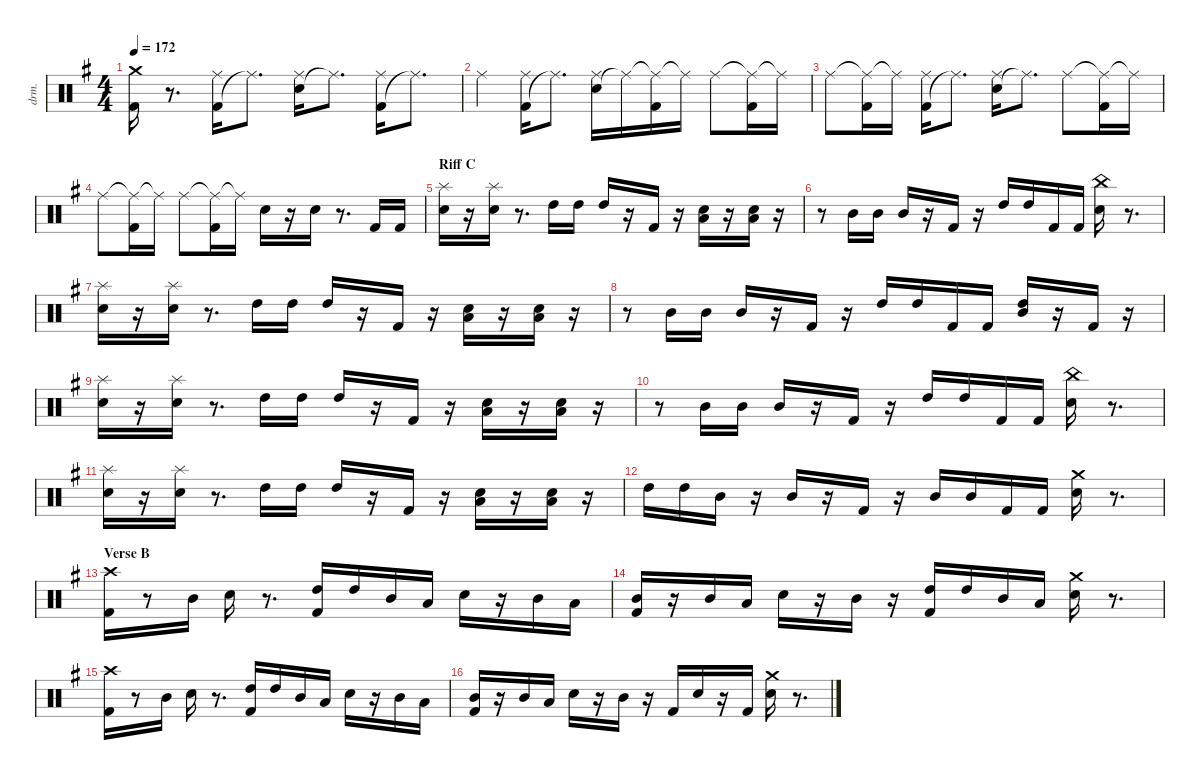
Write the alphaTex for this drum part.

\defaultSystemsLayout 4
\hideDynamics
\bracketExtendMode nobrackets
\otherSystemsTrackNameOrientation horizontal
\track ("Shinya" "drm.") {instrument percussion}
\staff {score}
\articulation defaults
\ts (4 4)
\tempo 172
\clef neutral
\ks eminor
("Kick (hit) 2"{acc forcenatural} "Crash medium (hit)"{acc forcenatural}).16{dy fff} r.8{d} ("Kick (hit) 2"{acc forcenatural} "Ride (middle)"{acc #}).16 "Ride (middle)"{t acc #}.8{d} ("Snare (hit) 2"{acc forcenatural} "Ride (middle)"{acc #}).16 "Ride (middle)"{t acc #}.8{d} ("Kick (hit) 2"{acc forcenatural} "Ride (middle)"{acc #}).16 "Ride (middle)"{t acc #}.8{d} |
"Ride (middle)"{acc #}.4 ("Kick (hit) 2"{acc forcenatural} "Ride (middle)"{acc #}).16 "Ride (middle)"{t acc #}.8{d} ("Snare (hit) 2"{acc forcenatural} "Ride (middle)"{acc #}).16 "Ride (middle)"{t acc #}.16 ("Ride (middle)"{t acc #} "Kick (hit) 2"{acc forcenatural}).16 "Ride (middle)"{t acc #}.16 "Ride (middle)"{acc #}.8 ("Ride (middle)"{t acc #} "Kick (hit) 2"{acc forcenatural}).16 "Ride (middle)"{t acc #}.16 |
"Ride (middle)"{acc #}.8 ("Ride (middle)"{t acc #} "Kick (hit) 2"{acc forcenatural}).16 "Ride (middle)"{t acc #}.16 ("Kick (hit) 2"{acc forcenatural} "Ride (middle)"{acc #}).16 "Ride (middle)"{t acc #}.8{d} ("Snare (hit) 2"{acc forcenatural} "Ride (middle)"{acc #}).16 "Ride (middle)"{t acc #}.8{d} "Ride (middle)"{acc #}.8 ("Ride (middle)"{t acc #} "Kick (hit) 2"{acc forcenatural}).16 "Ride (middle)"{t acc #}.16 |
"Ride (middle)"{acc #}.8 ("Ride (middle)"{t acc #} "Kick (hit) 2"{acc forcenatural}).16 "Ride (middle)"{t acc #}.16 "Ride (middle)"{acc #}.8 ("Ride (middle)"{t acc #} "Kick (hit) 2"{acc forcenatural}).16 "Ride (middle)"{t acc #}.16 "Snare (hit) 2"{acc forcenatural}.16 r.16 "Snare (hit) 2"{acc forcenatural}.16 r.8{d} "Kick (hit) 2"{acc forcenatural}.16 "Kick (hit) 2"{acc forcenatural}.16 |
\section ("" "Riff C")
("Snare (hit) 2"{acc forcenatural} "Splash (hit)"{acc forcenatural}).16 r.16 ("Snare (hit) 2"{acc forcenatural} "Splash (hit)"{acc forcenatural}).16 r.8{d} "High Tom (hit)"{acc forcenatural}.16 "High Tom (hit)"{acc forcenatural}.16 "High Tom (hit)"{acc forcenatural}.16 r.16 "Kick (hit) 2"{acc forcenatural}.16 r.16 ("Snare (hit) 2"{acc forcenatural} "Low Tom (hit)"{acc forcenatural}).16 r.16 ("Snare (hit) 2"{acc forcenatural} "Low Tom (hit)"{acc forcenatural}).16 r.16 |
r.8 "Mid Tom (hit)"{acc forcenatural}.16 "Mid Tom (hit)"{acc forcenatural}.16 "Mid Tom (hit)"{acc forcenatural}.16 r.16 "Kick (hit) 2"{acc forcenatural}.16 r.16 "High Tom (hit)"{acc forcenatural}.16 "High Tom (hit)"{acc forcenatural}.16 "Kick (hit) 2"{acc forcenatural}.16 "Kick (hit) 2"{acc forcenatural}.16 ("Snare (hit) 2"{acc forcenatural} "China (hit)"{acc forcenatural}).16 r.8{d} |
("Snare (hit) 2"{acc forcenatural} "Splash (hit)"{acc forcenatural}).16 r.16 ("Snare (hit) 2"{acc forcenatural} "Splash (hit)"{acc forcenatural}).16 r.8{d} "High Tom (hit)"{acc forcenatural}.16 "High Tom (hit)"{acc forcenatural}.16 "High Tom (hit)"{acc forcenatural}.16 r.16 "Kick (hit) 2"{acc forcenatural}.16 r.16 ("Snare (hit) 2"{acc forcenatural} "Low Tom (hit)"{acc forcenatural}).16 r.16 ("Snare (hit) 2"{acc forcenatural} "Low Tom (hit)"{acc forcenatural}).16 r.16 |
r.8 "Mid Tom (hit)"{acc forcenatural}.16 "Mid Tom (hit)"{acc forcenatural}.16 "Mid Tom (hit)"{acc forcenatural}.16 r.16 "Kick (hit) 2"{acc forcenatural}.16 r.16 "High Tom (hit)"{acc forcenatural}.16 "High Tom (hit)"{acc forcenatural}.16 "Kick (hit) 2"{acc forcenatural}.16 "Kick (hit) 2"{acc forcenatural}.16 ("Mid Tom (hit)"{acc forcenatural} "High Tom (hit)"{acc forcenatural}).16 r.16 "Kick (hit) 2"{acc forcenatural}.16 r.16 |
("Snare (hit) 2"{acc forcenatural} "Splash (hit)"{acc forcenatural}).16 r.16 ("Snare (hit) 2"{acc forcenatural} "Splash (hit)"{acc forcenatural}).16 r.8{d} "High Tom (hit)"{acc forcenatural}.16 "High Tom (hit)"{acc forcenatural}.16 "High Tom (hit)"{acc forcenatural}.16 r.16 "Kick (hit) 2"{acc forcenatural}.16 r.16 ("Snare (hit) 2"{acc forcenatural} "Low Tom (hit)"{acc forcenatural}).16 r.16 ("Snare (hit) 2"{acc forcenatural} "Low Tom (hit)"{acc forcenatural}).16 r.16 |
r.8 "Mid Tom (hit)"{acc forcenatural}.16 "Mid Tom (hit)"{acc forcenatural}.16 "Mid Tom (hit)"{acc forcenatural}.16 r.16 "Kick (hit) 2"{acc forcenatural}.16 r.16 "High Tom (hit)"{acc forcenatural}.16 "High Tom (hit)"{acc forcenatural}.16 "Kick (hit) 2"{acc forcenatural}.16 "Kick (hit) 2"{acc forcenatural}.16 ("Snare (hit) 2"{acc forcenatural} "China (hit)"{acc forcenatural}).16 r.8{d} |
("Snare (hit) 2"{acc forcenatural} "Splash (hit)"{acc forcenatural}).16 r.16 ("Snare (hit) 2"{acc forcenatural} "Splash (hit)"{acc forcenatural}).16 r.8{d} "High Tom (hit)"{acc forcenatural}.16 "High Tom (hit)"{acc forcenatural}.16 "High Tom (hit)"{acc forcenatural}.16 r.16 "Kick (hit) 2"{acc forcenatural}.16 r.16 ("Snare (hit) 2"{acc forcenatural} "Low Tom (hit)"{acc forcenatural}).16 r.16 ("Snare (hit) 2"{acc forcenatural} "Low Tom (hit)"{acc forcenatural}).16 r.16 |
"High Tom (hit)"{acc forcenatural}.16 "High Tom (hit)"{acc forcenatural}.16 "Mid Tom (hit)"{acc forcenatural}.16 r.16 "Mid Tom (hit)"{acc forcenatural}.16 r.16 "Kick (hit) 2"{acc forcenatural}.16 r.16 "Mid Tom (hit)"{acc forcenatural}.16 "Mid Tom (hit)"{acc forcenatural}.16 "Kick (hit) 2"{acc forcenatural}.16 "Kick (hit) 2"{acc forcenatural}.16 ("Snare (hit) 2"{acc forcenatural} "Crash medium (hit)"{acc forcenatural}).16 r.8{d} |
\section ("" "Verse B")
("Kick (hit) 2"{acc forcenatural} "Crash high (hit)"{acc #}).16 r.8 "Mid Tom (hit)"{acc forcenatural}.16 "Snare (hit) 2"{acc forcenatural}.16 r.8{d} ("Kick (hit) 2"{acc forcenatural} "High Tom (hit)"{acc forcenatural}).16 "High Tom (hit)"{acc forcenatural}.16 "Mid Tom (hit)"{acc forcenatural}.16 "Low Tom (hit)"{acc forcenatural}.16 "Snare (hit) 2"{acc forcenatural}.16 r.16 "Mid Tom (hit)"{acc forcenatural}.16 "Low Tom (hit)"{acc forcenatural}.16 |
("Kick (hit) 2"{acc forcenatural} "Mid Tom (hit)"{acc forcenatural}).16 r.16 "Mid Tom (hit)"{acc forcenatural}.16 "Low Tom (hit)"{acc forcenatural}.16{dy ff} "Snare (hit) 2"{acc forcenatural}.16{dy fff} r.16 "Mid Tom (hit)"{acc forcenatural}.16 r.16 ("Kick (hit) 2"{acc forcenatural} "High Tom (hit)"{acc forcenatural}).16 "High Tom (hit)"{acc forcenatural}.16 "Mid Tom (hit)"{acc forcenatural}.16 "Low Tom (hit)"{acc forcenatural}.16 ("Snare (hit) 2"{acc forcenatural} "Crash medium (hit)"{acc forcenatural}).16 r.8{d} |
("Kick (hit) 2"{acc forcenatural} "Crash high (hit)"{acc #}).16 r.8 "Mid Tom (hit)"{acc forcenatural}.16 "Snare (hit) 2"{acc forcenatural}.16 r.8{d} ("Kick (hit) 2"{acc forcenatural} "High Tom (hit)"{acc forcenatural}).16 "High Tom (hit)"{acc forcenatural}.16 "Mid Tom (hit)"{acc forcenatural}.16 "Low Tom (hit)"{acc forcenatural}.16 "Snare (hit) 2"{acc forcenatural}.16 r.16 "Mid Tom (hit)"{acc forcenatural}.16 "Low Tom (hit)"{acc forcenatural}.16 |
("Kick (hit) 2"{acc forcenatural} "Mid Tom (hit)"{acc forcenatural}).16 r.16 "Mid Tom (hit)"{acc forcenatural}.16 "Low Tom (hit)"{acc forcenatural}.16{dy ff} "Snare (hit) 2"{acc forcenatural}.16{dy fff} r.16 "Mid Tom (hit)"{acc forcenatural}.16 r.16 "Kick (hit) 2"{acc forcenatural}.16 "Snare (hit) 2"{acc forcenatural}.16 r.16 "Kick (hit) 2"{acc forcenatural}.16 ("Snare (hit) 2"{acc forcenatural} "Crash medium (hit)"{acc forcenatural}).16 r.8{d}
